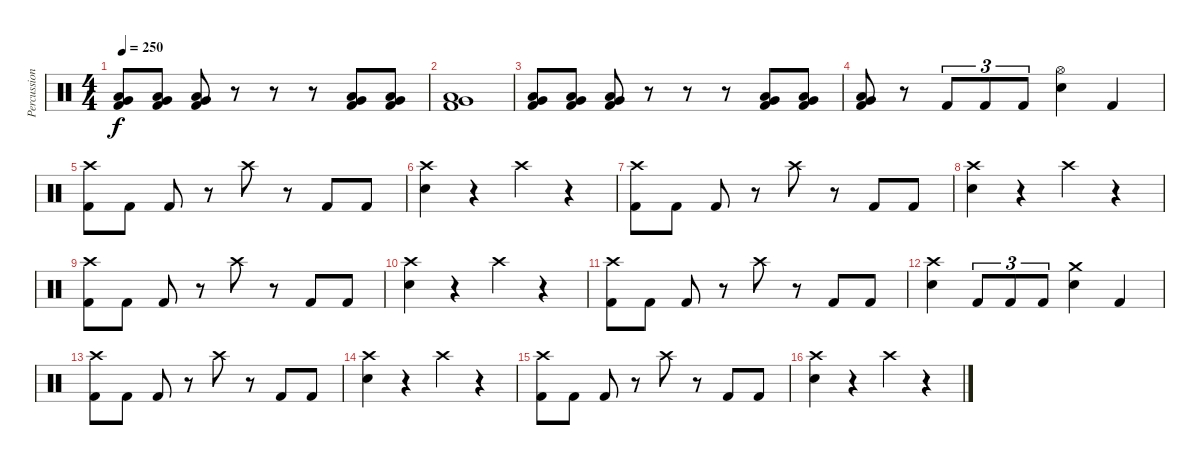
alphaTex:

\track ("Percussion" "Percussion") {instrument percussion}
\staff {score}
\articulation defaults
\ts (4 4)
\tempo 250
\clef neutral
\ks c
("Low Tom (hit)" "Very Low Tom (hit)" "Kick (hit) 2").8{dy f} ("Low Tom (hit)" "Very Low Tom (hit)" "Kick (hit) 2").8 ("Low Tom (hit)" "Very Low Tom (hit)" "Kick (hit) 2").8 r.8 r.8 r.8 ("Low Tom (hit)" "Very Low Tom (hit)" "Kick (hit) 2").8 ("Low Tom (hit)" "Very Low Tom (hit)" "Kick (hit) 2").8 |
("Low Tom (hit)" "Very Low Tom (hit)" "Kick (hit) 2").1 |
("Low Tom (hit)" "Very Low Tom (hit)" "Kick (hit) 2").8 ("Low Tom (hit)" "Very Low Tom (hit)" "Kick (hit) 2").8 ("Low Tom (hit)" "Very Low Tom (hit)" "Kick (hit) 2").8 r.8 r.8 r.8 ("Low Tom (hit)" "Very Low Tom (hit)" "Kick (hit) 2").8 ("Low Tom (hit)" "Very Low Tom (hit)" "Kick (hit) 2").8 |
("Low Tom (hit)" "Very Low Tom (hit)" "Kick (hit) 2").8 r.8 "Kick (hit) 2".8{tu (3 2)} "Kick (hit) 2".8{tu (3 2)} "Kick (hit) 2".8{tu (3 2)} ("Hi-Hat (open)" "Electric Snare (hit)").4 "Kick (hit) 2".4 |
("Crash high (hit)" "Kick (hit) 2").8 "Kick (hit) 2".8 "Kick (hit) 2".8 r.8 "Crash high (hit)".8 r.8 "Kick (hit) 2".8 "Kick (hit) 2".8 |
("Crash high (hit)" "Electric Snare (hit)").4 r.4 "Crash high (hit)".4 r.4 |
("Crash high (hit)" "Kick (hit) 2").8 "Kick (hit) 2".8 "Kick (hit) 2".8 r.8 "Crash high (hit)".8 r.8 "Kick (hit) 2".8 "Kick (hit) 2".8 |
("Crash high (hit)" "Electric Snare (hit)").4 r.4 "Crash high (hit)".4 r.4 |
("Crash high (hit)" "Kick (hit) 2").8 "Kick (hit) 2".8 "Kick (hit) 2".8 r.8 "Crash high (hit)".8 r.8 "Kick (hit) 2".8 "Kick (hit) 2".8 |
("Crash high (hit)" "Electric Snare (hit)").4 r.4 "Crash high (hit)".4 r.4 |
("Crash high (hit)" "Kick (hit) 2").8 "Kick (hit) 2".8 "Kick (hit) 2".8 r.8 "Crash high (hit)".8 r.8 "Kick (hit) 2".8 "Kick (hit) 2".8 |
("Crash high (hit)" "Electric Snare (hit)").4 "Kick (hit) 2".8{tu (3 2)} "Kick (hit) 2".8{tu (3 2)} "Kick (hit) 2".8{tu (3 2)} ("Crash medium (hit)" "Electric Snare (hit)").4 "Kick (hit) 2".4 |
("Crash high (hit)" "Kick (hit) 2").8 "Kick (hit) 2".8 "Kick (hit) 2".8 r.8 "Crash high (hit)".8 r.8 "Kick (hit) 2".8 "Kick (hit) 2".8 |
("Crash high (hit)" "Electric Snare (hit)").4 r.4 "Crash high (hit)".4 r.4 |
("Crash high (hit)" "Kick (hit) 2").8 "Kick (hit) 2".8 "Kick (hit) 2".8 r.8 "Crash high (hit)".8 r.8 "Kick (hit) 2".8 "Kick (hit) 2".8 |
("Crash high (hit)" "Electric Snare (hit)").4 r.4 "Crash high (hit)".4 r.4
